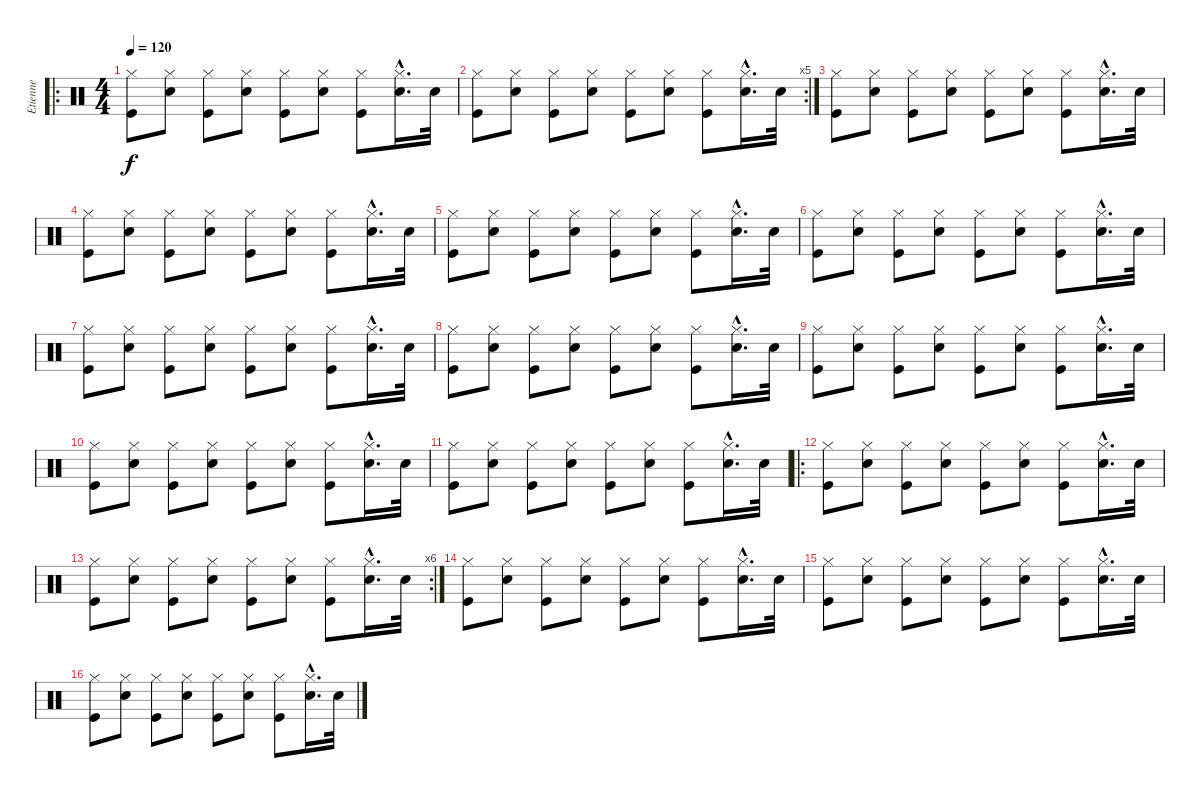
\track ("Etienne" "Etienne") {instrument percussion}
\staff {score}
\articulation defaults
\ro
\ts (4 4)
\tempo 120
\clef neutral
\ks c
("Hi-Hat (closed)" "Kick (hit)").8{dy f} ("Hi-Hat (closed)" "Snare (hit) 2").8 ("Hi-Hat (closed)" "Kick (hit)").8 ("Hi-Hat (closed)" "Snare (hit) 2").8 ("Hi-Hat (closed)" "Kick (hit)").8 ("Hi-Hat (closed)" "Snare (hit) 2").8 ("Hi-Hat (closed)" "Kick (hit)").8 ("Hi-Hat (closed)"{hac} "Snare (hit) 2"{hac}).16{d} "Snare (hit) 2".32 |
\rc 5
("Hi-Hat (closed)" "Kick (hit)").8 ("Hi-Hat (closed)" "Snare (hit) 2").8 ("Hi-Hat (closed)" "Kick (hit)").8 ("Hi-Hat (closed)" "Snare (hit) 2").8 ("Hi-Hat (closed)" "Kick (hit)").8 ("Hi-Hat (closed)" "Snare (hit) 2").8 ("Hi-Hat (closed)" "Kick (hit)").8 ("Hi-Hat (closed)"{hac} "Snare (hit) 2"{hac}).16{d} "Snare (hit) 2".32 |
("Hi-Hat (closed)" "Kick (hit)").8 ("Hi-Hat (closed)" "Snare (hit) 2").8 ("Hi-Hat (closed)" "Kick (hit)").8 ("Hi-Hat (closed)" "Snare (hit) 2").8 ("Hi-Hat (closed)" "Kick (hit)").8 ("Hi-Hat (closed)" "Snare (hit) 2").8 ("Hi-Hat (closed)" "Kick (hit)").8 ("Hi-Hat (closed)"{hac} "Snare (hit) 2"{hac}).16{d} "Snare (hit) 2".32 |
("Hi-Hat (closed)" "Kick (hit)").8 ("Hi-Hat (closed)" "Snare (hit) 2").8 ("Hi-Hat (closed)" "Kick (hit)").8 ("Hi-Hat (closed)" "Snare (hit) 2").8 ("Hi-Hat (closed)" "Kick (hit)").8 ("Hi-Hat (closed)" "Snare (hit) 2").8 ("Hi-Hat (closed)" "Kick (hit)").8 ("Hi-Hat (closed)"{hac} "Snare (hit) 2"{hac}).16{d} "Snare (hit) 2".32 |
("Hi-Hat (closed)" "Kick (hit)").8 ("Hi-Hat (closed)" "Snare (hit) 2").8 ("Hi-Hat (closed)" "Kick (hit)").8 ("Hi-Hat (closed)" "Snare (hit) 2").8 ("Hi-Hat (closed)" "Kick (hit)").8 ("Hi-Hat (closed)" "Snare (hit) 2").8 ("Hi-Hat (closed)" "Kick (hit)").8 ("Hi-Hat (closed)"{hac} "Snare (hit) 2"{hac}).16{d} "Snare (hit) 2".32 |
("Hi-Hat (closed)" "Kick (hit)").8 ("Hi-Hat (closed)" "Snare (hit) 2").8 ("Hi-Hat (closed)" "Kick (hit)").8 ("Hi-Hat (closed)" "Snare (hit) 2").8 ("Hi-Hat (closed)" "Kick (hit)").8 ("Hi-Hat (closed)" "Snare (hit) 2").8 ("Hi-Hat (closed)" "Kick (hit)").8 ("Hi-Hat (closed)"{hac} "Snare (hit) 2"{hac}).16{d} "Snare (hit) 2".32 |
("Hi-Hat (closed)" "Kick (hit)").8 ("Hi-Hat (closed)" "Snare (hit) 2").8 ("Hi-Hat (closed)" "Kick (hit)").8 ("Hi-Hat (closed)" "Snare (hit) 2").8 ("Hi-Hat (closed)" "Kick (hit)").8 ("Hi-Hat (closed)" "Snare (hit) 2").8 ("Hi-Hat (closed)" "Kick (hit)").8 ("Hi-Hat (closed)"{hac} "Snare (hit) 2"{hac}).16{d} "Snare (hit) 2".32 |
("Hi-Hat (closed)" "Kick (hit)").8 ("Hi-Hat (closed)" "Snare (hit) 2").8 ("Hi-Hat (closed)" "Kick (hit)").8 ("Hi-Hat (closed)" "Snare (hit) 2").8 ("Hi-Hat (closed)" "Kick (hit)").8 ("Hi-Hat (closed)" "Snare (hit) 2").8 ("Hi-Hat (closed)" "Kick (hit)").8 ("Hi-Hat (closed)"{hac} "Snare (hit) 2"{hac}).16{d} "Snare (hit) 2".32 |
("Hi-Hat (closed)" "Kick (hit)").8 ("Hi-Hat (closed)" "Snare (hit) 2").8 ("Hi-Hat (closed)" "Kick (hit)").8 ("Hi-Hat (closed)" "Snare (hit) 2").8 ("Hi-Hat (closed)" "Kick (hit)").8 ("Hi-Hat (closed)" "Snare (hit) 2").8 ("Hi-Hat (closed)" "Kick (hit)").8 ("Hi-Hat (closed)"{hac} "Snare (hit) 2"{hac}).16{d} "Snare (hit) 2".32 |
("Hi-Hat (closed)" "Kick (hit)").8 ("Hi-Hat (closed)" "Snare (hit) 2").8 ("Hi-Hat (closed)" "Kick (hit)").8 ("Hi-Hat (closed)" "Snare (hit) 2").8 ("Hi-Hat (closed)" "Kick (hit)").8 ("Hi-Hat (closed)" "Snare (hit) 2").8 ("Hi-Hat (closed)" "Kick (hit)").8 ("Hi-Hat (closed)"{hac} "Snare (hit) 2"{hac}).16{d} "Snare (hit) 2".32 |
("Hi-Hat (closed)" "Kick (hit)").8 ("Hi-Hat (closed)" "Snare (hit) 2").8 ("Hi-Hat (closed)" "Kick (hit)").8 ("Hi-Hat (closed)" "Snare (hit) 2").8 ("Hi-Hat (closed)" "Kick (hit)").8 ("Hi-Hat (closed)" "Snare (hit) 2").8 ("Hi-Hat (closed)" "Kick (hit)").8 ("Hi-Hat (closed)"{hac} "Snare (hit) 2"{hac}).16{d} "Snare (hit) 2".32 |
\ro
("Hi-Hat (closed)" "Kick (hit)").8 ("Hi-Hat (closed)" "Snare (hit) 2").8 ("Hi-Hat (closed)" "Kick (hit)").8 ("Hi-Hat (closed)" "Snare (hit) 2").8 ("Hi-Hat (closed)" "Kick (hit)").8 ("Hi-Hat (closed)" "Snare (hit) 2").8 ("Hi-Hat (closed)" "Kick (hit)").8 ("Hi-Hat (closed)"{hac} "Snare (hit) 2"{hac}).16{d} "Snare (hit) 2".32 |
\rc 6
("Hi-Hat (closed)" "Kick (hit)").8 ("Hi-Hat (closed)" "Snare (hit) 2").8 ("Hi-Hat (closed)" "Kick (hit)").8 ("Hi-Hat (closed)" "Snare (hit) 2").8 ("Hi-Hat (closed)" "Kick (hit)").8 ("Hi-Hat (closed)" "Snare (hit) 2").8 ("Hi-Hat (closed)" "Kick (hit)").8 ("Hi-Hat (closed)"{hac} "Snare (hit) 2"{hac}).16{d} "Snare (hit) 2".32 |
("Hi-Hat (closed)" "Kick (hit)").8 ("Hi-Hat (closed)" "Snare (hit) 2").8 ("Hi-Hat (closed)" "Kick (hit)").8 ("Hi-Hat (closed)" "Snare (hit) 2").8 ("Hi-Hat (closed)" "Kick (hit)").8 ("Hi-Hat (closed)" "Snare (hit) 2").8 ("Hi-Hat (closed)" "Kick (hit)").8 ("Hi-Hat (closed)"{hac} "Snare (hit) 2"{hac}).16{d} "Snare (hit) 2".32 |
("Hi-Hat (closed)" "Kick (hit)").8 ("Hi-Hat (closed)" "Snare (hit) 2").8 ("Hi-Hat (closed)" "Kick (hit)").8 ("Hi-Hat (closed)" "Snare (hit) 2").8 ("Hi-Hat (closed)" "Kick (hit)").8 ("Hi-Hat (closed)" "Snare (hit) 2").8 ("Hi-Hat (closed)" "Kick (hit)").8 ("Hi-Hat (closed)"{hac} "Snare (hit) 2"{hac}).16{d} "Snare (hit) 2".32 |
("Hi-Hat (closed)" "Kick (hit)").8 ("Hi-Hat (closed)" "Snare (hit) 2").8 ("Hi-Hat (closed)" "Kick (hit)").8 ("Hi-Hat (closed)" "Snare (hit) 2").8 ("Hi-Hat (closed)" "Kick (hit)").8 ("Hi-Hat (closed)" "Snare (hit) 2").8 ("Hi-Hat (closed)" "Kick (hit)").8 ("Hi-Hat (closed)"{hac} "Snare (hit) 2"{hac}).16{d} "Snare (hit) 2".32
